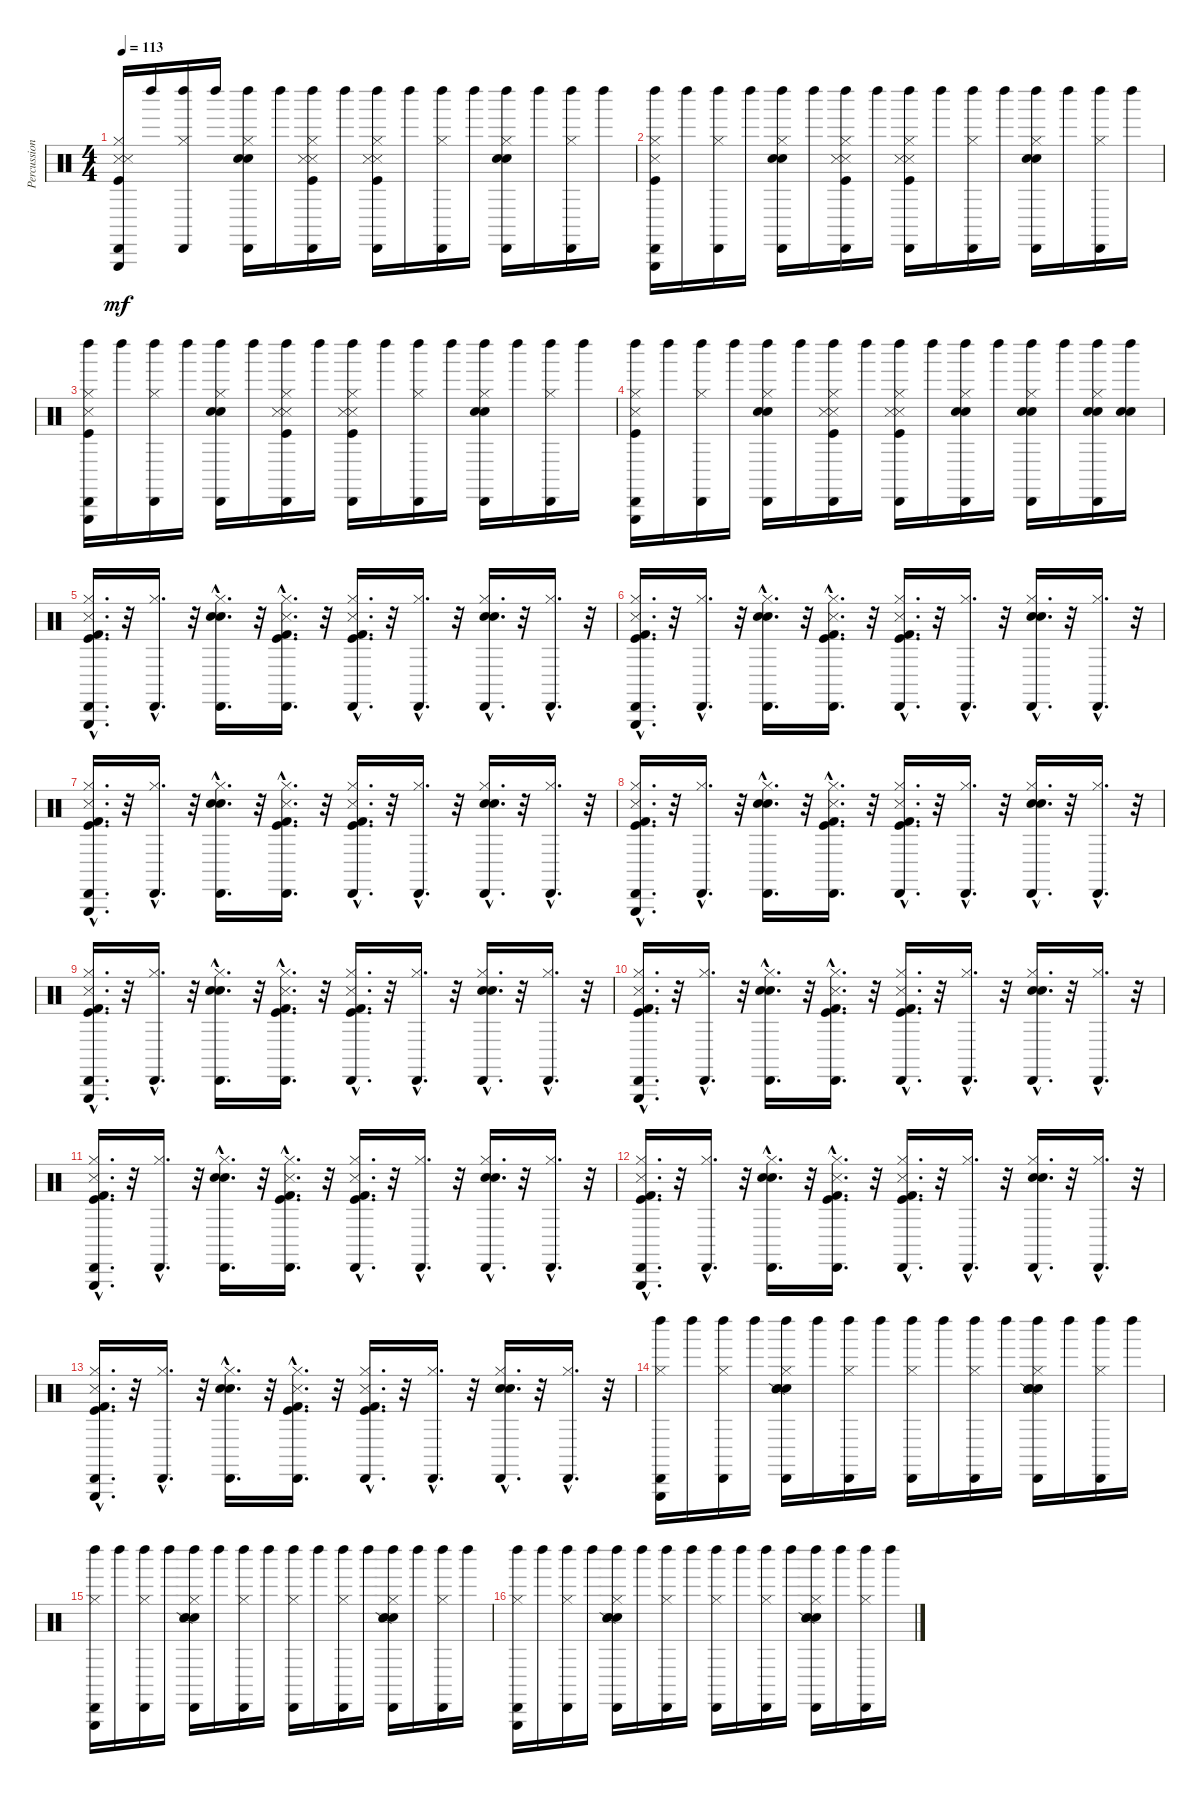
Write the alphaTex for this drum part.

\track ("Percussion" "Percussion") {instrument percussion}
\staff {score}
\articulation defaults
\ts (4 4)
\tempo 113
\clef neutral
\ks c
("Metronome (hit)" "Kick (hit)" "Snare (side stick) 3" "Hi-Hat (closed)" "Triangle (hit)" "Cabasa (hit)").16{dy mf} "Left Maraca (hit)".16 ("Hi-Hat (closed)" "Cabasa (hit)" "Left Maraca (hit)").16 "Left Maraca (hit)".16 ("Hand Clap (hit)" "Electric Snare (hit)" "Hi-Hat (closed)" "Cabasa (hit)" "Left Maraca (hit)").16 "Left Maraca (hit)".16 ("Snare (side stick) 3" "Kick (hit)" "Metronome (hit)" "Hi-Hat (closed)" "Cabasa (hit)" "Left Maraca (hit)").16 "Left Maraca (hit)".16 ("Metronome (hit)" "Kick (hit)" "Snare (side stick) 3" "Hi-Hat (closed)" "Cabasa (hit)" "Left Maraca (hit)").16 "Left Maraca (hit)".16 ("Hi-Hat (closed)" "Cabasa (hit)" "Left Maraca (hit)").16 "Left Maraca (hit)".16 ("Hand Clap (hit)" "Electric Snare (hit)" "Hi-Hat (closed)" "Cabasa (hit)" "Left Maraca (hit)").16 "Left Maraca (hit)".16 ("Hi-Hat (closed)" "Cabasa (hit)" "Left Maraca (hit)").16 "Left Maraca (hit)".16 |
("Left Maraca (hit)" "Cabasa (hit)" "Triangle (hit)" "Hi-Hat (closed)" "Snare (side stick) 3" "Kick (hit)").16 "Left Maraca (hit)".16 ("Left Maraca (hit)" "Cabasa (hit)" "Hi-Hat (closed)").16 "Left Maraca (hit)".16 ("Left Maraca (hit)" "Cabasa (hit)" "Hi-Hat (closed)" "Electric Snare (hit)" "Hand Clap (hit)").16 "Left Maraca (hit)".16 ("Left Maraca (hit)" "Cabasa (hit)" "Hi-Hat (closed)" "Metronome (hit)" "Kick (hit)" "Snare (side stick) 3").16 "Left Maraca (hit)".16 ("Left Maraca (hit)" "Cabasa (hit)" "Hi-Hat (closed)" "Snare (side stick) 3" "Kick (hit)" "Metronome (hit)").16 "Left Maraca (hit)".16 ("Left Maraca (hit)" "Cabasa (hit)" "Hi-Hat (closed)").16 "Left Maraca (hit)".16 ("Left Maraca (hit)" "Cabasa (hit)" "Hi-Hat (closed)" "Electric Snare (hit)" "Hand Clap (hit)").16 "Left Maraca (hit)".16 ("Left Maraca (hit)" "Cabasa (hit)" "Hi-Hat (closed)").16 "Left Maraca (hit)".16 |
("Left Maraca (hit)" "Cabasa (hit)" "Triangle (hit)" "Hi-Hat (closed)" "Snare (side stick) 3" "Kick (hit)").16 "Left Maraca (hit)".16 ("Left Maraca (hit)" "Cabasa (hit)" "Hi-Hat (closed)").16 "Left Maraca (hit)".16 ("Left Maraca (hit)" "Cabasa (hit)" "Hi-Hat (closed)" "Electric Snare (hit)" "Hand Clap (hit)").16 "Left Maraca (hit)".16 ("Left Maraca (hit)" "Cabasa (hit)" "Hi-Hat (closed)" "Metronome (hit)" "Kick (hit)" "Snare (side stick) 3").16 "Left Maraca (hit)".16 ("Left Maraca (hit)" "Cabasa (hit)" "Hi-Hat (closed)" "Snare (side stick) 3" "Kick (hit)" "Metronome (hit)").16 "Left Maraca (hit)".16 ("Left Maraca (hit)" "Cabasa (hit)" "Hi-Hat (closed)").16 "Left Maraca (hit)".16 ("Left Maraca (hit)" "Cabasa (hit)" "Hi-Hat (closed)" "Electric Snare (hit)" "Hand Clap (hit)").16 "Left Maraca (hit)".16 ("Left Maraca (hit)" "Cabasa (hit)" "Hi-Hat (closed)").16 "Left Maraca (hit)".16 |
("Left Maraca (hit)" "Cabasa (hit)" "Triangle (hit)" "Hi-Hat (closed)" "Snare (side stick) 3" "Kick (hit)").16 "Left Maraca (hit)".16 ("Left Maraca (hit)" "Cabasa (hit)" "Hi-Hat (closed)").16 "Left Maraca (hit)".16 ("Left Maraca (hit)" "Cabasa (hit)" "Hi-Hat (closed)" "Electric Snare (hit)" "Hand Clap (hit)").16 "Left Maraca (hit)".16 ("Left Maraca (hit)" "Cabasa (hit)" "Hi-Hat (closed)" "Metronome (hit)" "Kick (hit)" "Snare (side stick) 3").16 "Left Maraca (hit)".16 ("Left Maraca (hit)" "Cabasa (hit)" "Hi-Hat (closed)" "Snare (side stick) 3" "Kick (hit)" "Metronome (hit)").16 "Left Maraca (hit)".16 ("Hand Clap (hit)" "Electric Snare (hit)" "Left Maraca (hit)" "Cabasa (hit)" "Hi-Hat (closed)").16 "Left Maraca (hit)".16 ("Left Maraca (hit)" "Cabasa (hit)" "Hi-Hat (closed)" "Electric Snare (hit)" "Hand Clap (hit)").16 "Left Maraca (hit)".16 ("Hand Clap (hit)" "Electric Snare (hit)" "Left Maraca (hit)" "Cabasa (hit)" "Hi-Hat (closed)").16 ("Hand Clap (hit)" "Electric Snare (hit)" "Left Maraca (hit)").16 |
("Kick (hit) 2"{hac} "Cabasa (hit)"{hac} "Triangle (hit)"{hac} "Metronome (hit)"{hac} "Kick (hit)"{hac} "Hi-Hat (closed)"{hac}).16{d} r.32 ("Cabasa (hit)"{hac} "Hi-Hat (closed)"{hac}).16{d} r.32 ("Hand Clap (hit)"{hac} "Cabasa (hit)"{hac} "Electric Snare (hit)"{hac} "Hi-Hat (closed)"{hac}).16{d} r.32 ("Kick (hit) 2"{hac} "Cabasa (hit)"{hac} "Kick (hit)"{hac} "Metronome (hit)"{hac} "Hi-Hat (closed)"{hac}).16{d} r.32 ("Kick (hit) 2"{hac} "Cabasa (hit)"{hac} "Metronome (hit)"{hac} "Kick (hit)"{hac} "Hi-Hat (closed)"{hac}).16{d} r.32 ("Cabasa (hit)"{hac} "Hi-Hat (closed)"{hac}).16{d} r.32 ("Cabasa (hit)"{hac} "Hand Clap (hit)"{hac} "Electric Snare (hit)"{hac} "Hi-Hat (closed)"{hac}).16{d} r.32 ("Cabasa (hit)"{hac} "Hi-Hat (closed)"{hac}).16{d} r.32 |
("Kick (hit) 2"{hac} "Cabasa (hit)"{hac} "Triangle (hit)"{hac} "Metronome (hit)"{hac} "Kick (hit)"{hac} "Hi-Hat (closed)"{hac}).16{d} r.32 ("Cabasa (hit)"{hac} "Hi-Hat (closed)"{hac}).16{d} r.32 ("Hand Clap (hit)"{hac} "Cabasa (hit)"{hac} "Electric Snare (hit)"{hac} "Hi-Hat (closed)"{hac}).16{d} r.32 ("Kick (hit) 2"{hac} "Cabasa (hit)"{hac} "Kick (hit)"{hac} "Metronome (hit)"{hac} "Hi-Hat (closed)"{hac}).16{d} r.32 ("Kick (hit) 2"{hac} "Cabasa (hit)"{hac} "Metronome (hit)"{hac} "Kick (hit)"{hac} "Hi-Hat (closed)"{hac}).16{d} r.32 ("Cabasa (hit)"{hac} "Hi-Hat (closed)"{hac}).16{d} r.32 ("Cabasa (hit)"{hac} "Hand Clap (hit)"{hac} "Electric Snare (hit)"{hac} "Hi-Hat (closed)"{hac}).16{d} r.32 ("Cabasa (hit)"{hac} "Hi-Hat (closed)"{hac}).16{d} r.32 |
("Kick (hit) 2"{hac} "Cabasa (hit)"{hac} "Triangle (hit)"{hac} "Metronome (hit)"{hac} "Kick (hit)"{hac} "Hi-Hat (closed)"{hac}).16{d} r.32 ("Cabasa (hit)"{hac} "Hi-Hat (closed)"{hac}).16{d} r.32 ("Hand Clap (hit)"{hac} "Cabasa (hit)"{hac} "Electric Snare (hit)"{hac} "Hi-Hat (closed)"{hac}).16{d} r.32 ("Kick (hit) 2"{hac} "Cabasa (hit)"{hac} "Kick (hit)"{hac} "Metronome (hit)"{hac} "Hi-Hat (closed)"{hac}).16{d} r.32 ("Kick (hit) 2"{hac} "Cabasa (hit)"{hac} "Metronome (hit)"{hac} "Kick (hit)"{hac} "Hi-Hat (closed)"{hac}).16{d} r.32 ("Cabasa (hit)"{hac} "Hi-Hat (closed)"{hac}).16{d} r.32 ("Cabasa (hit)"{hac} "Hand Clap (hit)"{hac} "Electric Snare (hit)"{hac} "Hi-Hat (closed)"{hac}).16{d} r.32 ("Cabasa (hit)"{hac} "Hi-Hat (closed)"{hac}).16{d} r.32 |
("Kick (hit) 2"{hac} "Cabasa (hit)"{hac} "Triangle (hit)"{hac} "Metronome (hit)"{hac} "Kick (hit)"{hac} "Hi-Hat (closed)"{hac}).16{d} r.32 ("Cabasa (hit)"{hac} "Hi-Hat (closed)"{hac}).16{d} r.32 ("Hand Clap (hit)"{hac} "Cabasa (hit)"{hac} "Electric Snare (hit)"{hac} "Hi-Hat (closed)"{hac}).16{d} r.32 ("Kick (hit) 2"{hac} "Cabasa (hit)"{hac} "Kick (hit)"{hac} "Metronome (hit)"{hac} "Hi-Hat (closed)"{hac}).16{d} r.32 ("Kick (hit) 2"{hac} "Cabasa (hit)"{hac} "Metronome (hit)"{hac} "Kick (hit)"{hac} "Hi-Hat (closed)"{hac}).16{d} r.32 ("Cabasa (hit)"{hac} "Hi-Hat (closed)"{hac}).16{d} r.32 ("Cabasa (hit)"{hac} "Hand Clap (hit)"{hac} "Electric Snare (hit)"{hac} "Hi-Hat (closed)"{hac}).16{d} r.32 ("Cabasa (hit)"{hac} "Hi-Hat (closed)"{hac}).16{d} r.32 |
("Kick (hit) 2"{hac} "Cabasa (hit)"{hac} "Triangle (hit)"{hac} "Metronome (hit)"{hac} "Kick (hit)"{hac} "Hi-Hat (closed)"{hac}).16{d} r.32 ("Cabasa (hit)"{hac} "Hi-Hat (closed)"{hac}).16{d} r.32 ("Hand Clap (hit)"{hac} "Cabasa (hit)"{hac} "Electric Snare (hit)"{hac} "Hi-Hat (closed)"{hac}).16{d} r.32 ("Kick (hit) 2"{hac} "Cabasa (hit)"{hac} "Kick (hit)"{hac} "Metronome (hit)"{hac} "Hi-Hat (closed)"{hac}).16{d} r.32 ("Kick (hit) 2"{hac} "Cabasa (hit)"{hac} "Metronome (hit)"{hac} "Kick (hit)"{hac} "Hi-Hat (closed)"{hac}).16{d} r.32 ("Cabasa (hit)"{hac} "Hi-Hat (closed)"{hac}).16{d} r.32 ("Cabasa (hit)"{hac} "Hand Clap (hit)"{hac} "Electric Snare (hit)"{hac} "Hi-Hat (closed)"{hac}).16{d} r.32 ("Cabasa (hit)"{hac} "Hi-Hat (closed)"{hac}).16{d} r.32 |
("Kick (hit) 2"{hac} "Cabasa (hit)"{hac} "Triangle (hit)"{hac} "Metronome (hit)"{hac} "Kick (hit)"{hac} "Hi-Hat (closed)"{hac}).16{d} r.32 ("Cabasa (hit)"{hac} "Hi-Hat (closed)"{hac}).16{d} r.32 ("Hand Clap (hit)"{hac} "Cabasa (hit)"{hac} "Electric Snare (hit)"{hac} "Hi-Hat (closed)"{hac}).16{d} r.32 ("Kick (hit) 2"{hac} "Cabasa (hit)"{hac} "Kick (hit)"{hac} "Metronome (hit)"{hac} "Hi-Hat (closed)"{hac}).16{d} r.32 ("Kick (hit) 2"{hac} "Cabasa (hit)"{hac} "Metronome (hit)"{hac} "Kick (hit)"{hac} "Hi-Hat (closed)"{hac}).16{d} r.32 ("Cabasa (hit)"{hac} "Hi-Hat (closed)"{hac}).16{d} r.32 ("Cabasa (hit)"{hac} "Hand Clap (hit)"{hac} "Electric Snare (hit)"{hac} "Hi-Hat (closed)"{hac}).16{d} r.32 ("Cabasa (hit)"{hac} "Hi-Hat (closed)"{hac}).16{d} r.32 |
("Kick (hit) 2"{hac} "Cabasa (hit)"{hac} "Triangle (hit)"{hac} "Metronome (hit)"{hac} "Kick (hit)"{hac} "Hi-Hat (closed)"{hac}).16{d} r.32 ("Cabasa (hit)"{hac} "Hi-Hat (closed)"{hac}).16{d} r.32 ("Hand Clap (hit)"{hac} "Cabasa (hit)"{hac} "Electric Snare (hit)"{hac} "Hi-Hat (closed)"{hac}).16{d} r.32 ("Kick (hit) 2"{hac} "Cabasa (hit)"{hac} "Kick (hit)"{hac} "Metronome (hit)"{hac} "Hi-Hat (closed)"{hac}).16{d} r.32 ("Kick (hit) 2"{hac} "Cabasa (hit)"{hac} "Metronome (hit)"{hac} "Kick (hit)"{hac} "Hi-Hat (closed)"{hac}).16{d} r.32 ("Cabasa (hit)"{hac} "Hi-Hat (closed)"{hac}).16{d} r.32 ("Electric Snare (hit)"{hac} "Hi-Hat (closed)"{hac} "Hand Clap (hit)"{hac} "Cabasa (hit)"{hac}).16{d} r.32 ("Cabasa (hit)"{hac} "Hi-Hat (closed)"{hac}).16{d} r.32 |
("Kick (hit) 2"{hac} "Cabasa (hit)"{hac} "Triangle (hit)"{hac} "Metronome (hit)"{hac} "Kick (hit)"{hac} "Hi-Hat (closed)"{hac}).16{d} r.32 ("Cabasa (hit)"{hac} "Hi-Hat (closed)"{hac}).16{d} r.32 ("Hand Clap (hit)"{hac} "Cabasa (hit)"{hac} "Electric Snare (hit)"{hac} "Hi-Hat (closed)"{hac}).16{d} r.32 ("Kick (hit) 2"{hac} "Cabasa (hit)"{hac} "Kick (hit)"{hac} "Metronome (hit)"{hac} "Hi-Hat (closed)"{hac}).16{d} r.32 ("Kick (hit) 2"{hac} "Cabasa (hit)"{hac} "Metronome (hit)"{hac} "Kick (hit)"{hac} "Hi-Hat (closed)"{hac}).16{d} r.32 ("Cabasa (hit)"{hac} "Hi-Hat (closed)"{hac}).16{d} r.32 ("Cabasa (hit)"{hac} "Hand Clap (hit)"{hac} "Electric Snare (hit)"{hac} "Hi-Hat (closed)"{hac}).16{d} r.32 ("Cabasa (hit)"{hac} "Hi-Hat (closed)"{hac}).16{d} r.32 |
("Kick (hit) 2"{hac} "Cabasa (hit)"{hac} "Triangle (hit)"{hac} "Metronome (hit)"{hac} "Kick (hit)"{hac} "Hi-Hat (closed)"{hac}).16{d} r.32 ("Cabasa (hit)"{hac} "Hi-Hat (closed)"{hac}).16{d} r.32 ("Hand Clap (hit)"{hac} "Cabasa (hit)"{hac} "Electric Snare (hit)"{hac} "Hi-Hat (closed)"{hac}).16{d} r.32 ("Kick (hit) 2"{hac} "Cabasa (hit)"{hac} "Kick (hit)"{hac} "Metronome (hit)"{hac} "Hi-Hat (closed)"{hac}).16{d} r.32 ("Kick (hit) 2"{hac} "Cabasa (hit)"{hac} "Metronome (hit)"{hac} "Kick (hit)"{hac} "Hi-Hat (closed)"{hac}).16{d} r.32 ("Cabasa (hit)"{hac} "Hi-Hat (closed)"{hac}).16{d} r.32 ("Cabasa (hit)"{hac} "Hand Clap (hit)"{hac} "Electric Snare (hit)"{hac} "Hi-Hat (closed)"{hac}).16{d} r.32 ("Cabasa (hit)"{hac} "Hi-Hat (closed)"{hac}).16{d} r.32 |
("Left Maraca (hit)" "Cabasa (hit)" "Triangle (hit)" "Hi-Hat (closed)").16 "Left Maraca (hit)".16 ("Left Maraca (hit)" "Cabasa (hit)" "Hi-Hat (closed)").16 "Left Maraca (hit)".16 ("Snare (hit)" "Snare (side stick) 2" "Hand Clap (hit)" "Left Maraca (hit)" "Cabasa (hit)" "Hi-Hat (closed)").16 "Left Maraca (hit)".16 ("Left Maraca (hit)" "Cabasa (hit)" "Hi-Hat (closed)").16 "Left Maraca (hit)".16 ("Left Maraca (hit)" "Cabasa (hit)" "Hi-Hat (closed)").16 "Left Maraca (hit)".16 ("Left Maraca (hit)" "Cabasa (hit)" "Hi-Hat (closed)").16 "Left Maraca (hit)".16 ("Snare (hit)" "Snare (side stick) 2" "Left Maraca (hit)" "Cabasa (hit)" "Hi-Hat (closed)" "Hand Clap (hit)").16 "Left Maraca (hit)".16 ("Left Maraca (hit)" "Cabasa (hit)" "Hi-Hat (closed)").16 "Left Maraca (hit)".16 |
("Hi-Hat (closed)" "Triangle (hit)" "Cabasa (hit)" "Left Maraca (hit)").16 "Left Maraca (hit)".16 ("Hi-Hat (closed)" "Cabasa (hit)" "Left Maraca (hit)").16 "Left Maraca (hit)".16 ("Hi-Hat (closed)" "Cabasa (hit)" "Left Maraca (hit)" "Hand Clap (hit)" "Snare (side stick) 2" "Snare (hit)").16 "Left Maraca (hit)".16 ("Hi-Hat (closed)" "Cabasa (hit)" "Left Maraca (hit)").16 "Left Maraca (hit)".16 ("Hi-Hat (closed)" "Cabasa (hit)" "Left Maraca (hit)").16 "Left Maraca (hit)".16 ("Hi-Hat (closed)" "Cabasa (hit)" "Left Maraca (hit)").16 "Left Maraca (hit)".16 ("Hand Clap (hit)" "Hi-Hat (closed)" "Cabasa (hit)" "Left Maraca (hit)" "Snare (side stick) 2" "Snare (hit)").16 "Left Maraca (hit)".16 ("Hi-Hat (closed)" "Cabasa (hit)" "Left Maraca (hit)").16 "Left Maraca (hit)".16 |
("Hi-Hat (closed)" "Triangle (hit)" "Cabasa (hit)" "Left Maraca (hit)").16 "Left Maraca (hit)".16 ("Hi-Hat (closed)" "Cabasa (hit)" "Left Maraca (hit)").16 "Left Maraca (hit)".16 ("Hi-Hat (closed)" "Cabasa (hit)" "Left Maraca (hit)" "Hand Clap (hit)" "Snare (side stick) 2" "Snare (hit)").16 "Left Maraca (hit)".16 ("Hi-Hat (closed)" "Cabasa (hit)" "Left Maraca (hit)").16 "Left Maraca (hit)".16 ("Hi-Hat (closed)" "Cabasa (hit)" "Left Maraca (hit)").16 "Left Maraca (hit)".16 ("Hi-Hat (closed)" "Cabasa (hit)" "Left Maraca (hit)").16 "Left Maraca (hit)".16 ("Hand Clap (hit)" "Hi-Hat (closed)" "Cabasa (hit)" "Left Maraca (hit)" "Snare (side stick) 2" "Snare (hit)").16 "Left Maraca (hit)".16 ("Hi-Hat (closed)" "Cabasa (hit)" "Left Maraca (hit)").16 "Left Maraca (hit)".16
